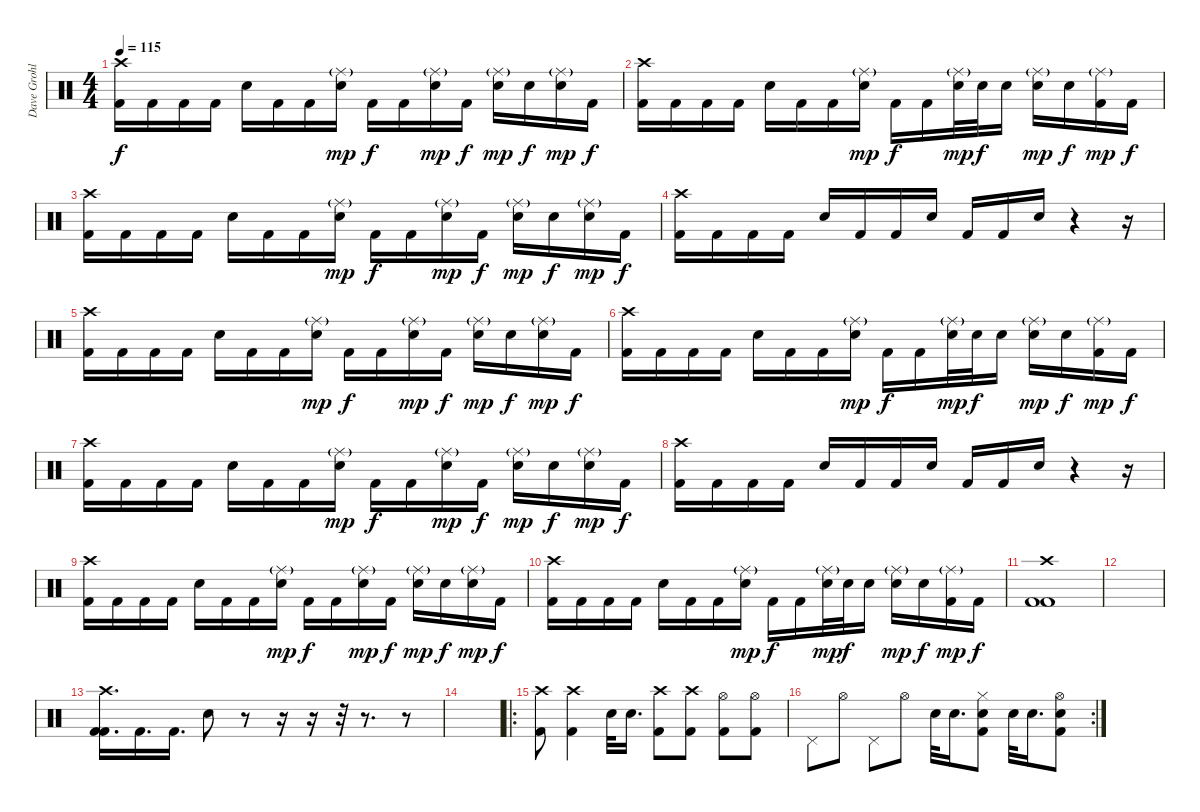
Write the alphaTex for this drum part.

\track ("Dave Grohl" "Dave Grohl") {instrument percussion}
\staff {score}
\articulation defaults
\ts (4 4)
\tempo 115
\clef neutral
\ks c
("Crash high (hit)" "Kick (hit) 2").16{dy f} "Kick (hit) 2".16 "Kick (hit) 2".16 "Kick (hit) 2".16 "Snare (hit) 2".16 "Kick (hit) 2".16 "Kick (hit) 2".16 ("Ride (middle)"{g} "Snare (hit) 2").16{dy mp} "Kick (hit) 2".16{dy f} "Kick (hit) 2".16 ("Ride (middle)"{g} "Snare (hit) 2").16{dy mp} "Kick (hit) 2".16{dy f} ("Ride (middle)"{g} "Snare (hit) 2").16{dy mp} "Snare (hit) 2".16{dy f} ("Ride (middle)"{g} "Snare (hit) 2").16{dy mp} "Kick (hit) 2".16{dy f} |
("Crash high (hit)" "Kick (hit) 2").16 "Kick (hit) 2".16 "Kick (hit) 2".16 "Kick (hit) 2".16 "Snare (hit) 2".16 "Kick (hit) 2".16 "Kick (hit) 2".16 ("Ride (middle)"{g} "Snare (hit) 2").16{dy mp} "Kick (hit) 2".16{dy f} "Kick (hit) 2".16 ("Ride (middle)"{g} "Snare (hit) 2").32{dy mp} "Snare (hit) 2".32{dy f} "Snare (hit) 2".16 ("Ride (middle)"{g} "Snare (hit) 2").16{dy mp} "Snare (hit) 2".16{dy f} ("Ride (middle)"{g} "Kick (hit) 2").16{dy mp} "Kick (hit) 2".16{dy f} |
("Crash high (hit)" "Kick (hit) 2").16 "Kick (hit) 2".16 "Kick (hit) 2".16 "Kick (hit) 2".16 "Snare (hit) 2".16 "Kick (hit) 2".16 "Kick (hit) 2".16 ("Ride (middle)"{g} "Snare (hit) 2").16{dy mp} "Kick (hit) 2".16{dy f} "Kick (hit) 2".16 ("Ride (middle)"{g} "Snare (hit) 2").16{dy mp} "Kick (hit) 2".16{dy f} ("Ride (middle)"{g} "Snare (hit) 2").16{dy mp} "Snare (hit) 2".16{dy f} ("Ride (middle)"{g} "Snare (hit) 2").16{dy mp} "Kick (hit) 2".16{dy f} |
("Crash high (hit)" "Kick (hit) 2").16 "Kick (hit) 2".16 "Kick (hit) 2".16 "Kick (hit) 2".16 "Snare (hit) 2".16 "Kick (hit) 2".16 "Kick (hit) 2".16 "Snare (hit) 2".16 "Kick (hit) 2".16 "Kick (hit) 2".16 "Snare (hit) 2".16 r.4 r.16 |
("Crash high (hit)" "Kick (hit) 2").16 "Kick (hit) 2".16 "Kick (hit) 2".16 "Kick (hit) 2".16 "Snare (hit) 2".16 "Kick (hit) 2".16 "Kick (hit) 2".16 ("Ride (middle)"{g} "Snare (hit) 2").16{dy mp} "Kick (hit) 2".16{dy f} "Kick (hit) 2".16 ("Ride (middle)"{g} "Snare (hit) 2").16{dy mp} "Kick (hit) 2".16{dy f} ("Ride (middle)"{g} "Snare (hit) 2").16{dy mp} "Snare (hit) 2".16{dy f} ("Ride (middle)"{g} "Snare (hit) 2").16{dy mp} "Kick (hit) 2".16{dy f} |
("Crash high (hit)" "Kick (hit) 2").16 "Kick (hit) 2".16 "Kick (hit) 2".16 "Kick (hit) 2".16 "Snare (hit) 2".16 "Kick (hit) 2".16 "Kick (hit) 2".16 ("Ride (middle)"{g} "Snare (hit) 2").16{dy mp} "Kick (hit) 2".16{dy f} "Kick (hit) 2".16 ("Ride (middle)"{g} "Snare (hit) 2").32{dy mp} "Snare (hit) 2".32{dy f} "Snare (hit) 2".16 ("Ride (middle)"{g} "Snare (hit) 2").16{dy mp} "Snare (hit) 2".16{dy f} ("Ride (middle)"{g} "Kick (hit) 2").16{dy mp} "Kick (hit) 2".16{dy f} |
("Crash high (hit)" "Kick (hit) 2").16 "Kick (hit) 2".16 "Kick (hit) 2".16 "Kick (hit) 2".16 "Snare (hit) 2".16 "Kick (hit) 2".16 "Kick (hit) 2".16 ("Ride (middle)"{g} "Snare (hit) 2").16{dy mp} "Kick (hit) 2".16{dy f} "Kick (hit) 2".16 ("Ride (middle)"{g} "Snare (hit) 2").16{dy mp} "Kick (hit) 2".16{dy f} ("Ride (middle)"{g} "Snare (hit) 2").16{dy mp} "Snare (hit) 2".16{dy f} ("Ride (middle)"{g} "Snare (hit) 2").16{dy mp} "Kick (hit) 2".16{dy f} |
("Crash high (hit)" "Kick (hit) 2").16 "Kick (hit) 2".16 "Kick (hit) 2".16 "Kick (hit) 2".16 "Snare (hit) 2".16 "Kick (hit) 2".16 "Kick (hit) 2".16 "Snare (hit) 2".16 "Kick (hit) 2".16 "Kick (hit) 2".16 "Snare (hit) 2".16 r.4 r.16 |
("Crash high (hit)" "Kick (hit) 2").16 "Kick (hit) 2".16 "Kick (hit) 2".16 "Kick (hit) 2".16 "Snare (hit) 2".16 "Kick (hit) 2".16 "Kick (hit) 2".16 ("Ride (middle)"{g} "Snare (hit) 2").16{dy mp} "Kick (hit) 2".16{dy f} "Kick (hit) 2".16 ("Ride (middle)"{g} "Snare (hit) 2").16{dy mp} "Kick (hit) 2".16{dy f} ("Ride (middle)"{g} "Snare (hit) 2").16{dy mp} "Snare (hit) 2".16{dy f} ("Ride (middle)"{g} "Snare (hit) 2").16{dy mp} "Kick (hit) 2".16{dy f} |
("Crash high (hit)" "Kick (hit) 2").16 "Kick (hit) 2".16 "Kick (hit) 2".16 "Kick (hit) 2".16 "Snare (hit) 2".16 "Kick (hit) 2".16 "Kick (hit) 2".16 ("Ride (middle)"{g} "Snare (hit) 2").16{dy mp} "Kick (hit) 2".16{dy f} "Kick (hit) 2".16 ("Ride (middle)"{g} "Snare (hit) 2").32{dy mp} "Snare (hit) 2".32{dy f} "Snare (hit) 2".16 ("Ride (middle)"{g} "Snare (hit) 2").16{dy mp} "Snare (hit) 2".16{dy f} ("Ride (middle)"{g} "Kick (hit) 2").16{dy mp} "Kick (hit) 2".16{dy f} |
("Crash high (hit)" "Kick (hit) 2" "Kick (hit) 2").1 |
|
("Crash high (hit)" "Kick (hit) 2" "Kick (hit) 2").16{d} "Kick (hit) 2".16{d} "Kick (hit) 2".16{d} "Snare (hit) 2".8 r.8 r.16 r.16 r.32 r.8{d} r.8 |
|
\ro
("Crash high (hit)" "Kick (hit) 2").8 ("Crash high (hit)" "Kick (hit) 2").4 "Snare (hit) 2".32 "Snare (hit) 2".16{d} ("Crash high (hit)" "Kick (hit) 2").8 ("Crash high (hit)" "Kick (hit) 2").8 ("Hi-Hat (open)" "Kick (hit) 2").8 ("Hi-Hat (open)" "Kick (hit) 2").8 |
\rc 2 "Pedal Hi-Hat (hit)".8 "Hi-Hat (open)".8 "Pedal Hi-Hat (hit)".8 "Hi-Hat (open)".8 "Snare (hit) 2".32 "Snare (hit) 2".16{d}
("Hi-Hat (closed)" "Snare (hit) 2" "Kick (hit) 2").8 "Snare (hit) 2".32 "Snare (hit) 2".16{d} ("Hi-Hat (open)" "Snare (hit) 2" "Kick (hit) 2").8
